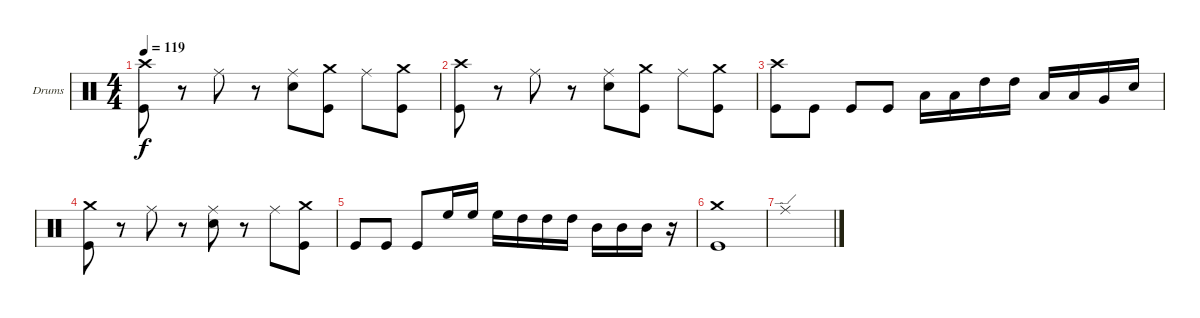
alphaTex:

\bracketExtendMode groupsimilarinstruments
\firstSystemTrackNameOrientation horizontal
\otherSystemsTrackNameOrientation horizontal
\track ("Drumkit" "Drums") {instrument percussion}
\staff {score}
\articulation defaults
\ts (4 4)
\tempo 119
\clef neutral
\ks c
("Crash high (hit)" "Kick (hit)").8{dy f} r.8 "Ride (middle)".8 r.8 ("Ride (middle)" "Snare (hit) 2").8 ("Crash medium (hit)" "Kick (hit)").8 "Ride (middle)".8 ("Crash medium (hit)" "Kick (hit)").8 |
("Crash high (hit)" "Kick (hit)").8 r.8 "Ride (middle)".8 r.8 ("Ride (middle)" "Snare (hit) 2").8 ("Crash medium (hit)" "Kick (hit)").8 "Ride (middle)".8 ("Crash medium (hit)" "Kick (hit)").8 |
("Crash high (hit)" "Kick (hit)").8 "Kick (hit)".8 "Kick (hit)".8 "Kick (hit)".8 "Low Tom (hit)".16 "Low Tom (hit)".16 "High Tom (hit)".16 "High Tom (hit)".16 "Low Tom (hit)".16 "Low Tom (hit)".16 "Very Low Tom (hit)".16 "Snare (hit) 2".16 |
("Crash medium (hit)" "Kick (hit)").8 r.8 "Ride (middle)".8 r.8 ("Ride (middle)" "Snare (hit) 2").8 r.8 "Ride (middle)".8 ("Crash medium (hit)" "Kick (hit)").8 |
"Kick (hit)".8 "Kick (hit)".8 "Kick (hit)".8 "High Floor Tom (hit)".16 "High Floor Tom (hit)".16 "High Floor Tom (hit)".16 "High Tom (hit)".16 "High Tom (hit)".16 "High Tom (hit)".16 "Mid Tom (hit)".16 "Mid Tom (hit)".16 "Mid Tom (hit)".16 r.16 |
("Crash medium (hit)" "Kick (hit)").1 |
"Ride (edge)".1
